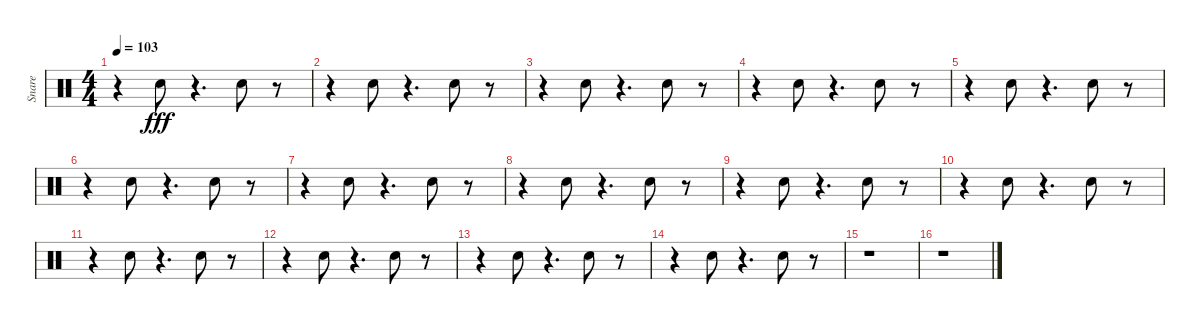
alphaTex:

\track ("Snare" "Snare") {instrument percussion}
\staff {score}
\articulation defaults
\ts (4 4)
\tempo 103
\clef neutral
\ks c
r.4{dy fff} "Electric Snare (hit)".8 r.4{d} "Electric Snare (hit)".8 r.8 |
r.4 "Electric Snare (hit)".8 r.4{d} "Electric Snare (hit)".8 r.8 |
r.4 "Electric Snare (hit)".8 r.4{d} "Electric Snare (hit)".8 r.8 |
r.4 "Electric Snare (hit)".8 r.4{d} "Electric Snare (hit)".8 r.8 |
r.4 "Electric Snare (hit)".8 r.4{d} "Electric Snare (hit)".8 r.8 |
r.4 "Electric Snare (hit)".8 r.4{d} "Electric Snare (hit)".8 r.8 |
r.4 "Electric Snare (hit)".8 r.4{d} "Electric Snare (hit)".8 r.8 |
r.4 "Electric Snare (hit)".8 r.4{d} "Electric Snare (hit)".8 r.8 |
r.4 "Electric Snare (hit)".8 r.4{d} "Electric Snare (hit)".8 r.8 |
r.4 "Electric Snare (hit)".8 r.4{d} "Electric Snare (hit)".8 r.8 |
r.4 "Electric Snare (hit)".8 r.4{d} "Electric Snare (hit)".8 r.8 |
r.4 "Electric Snare (hit)".8 r.4{d} "Electric Snare (hit)".8 r.8 |
r.4 "Electric Snare (hit)".8 r.4{d} "Electric Snare (hit)".8 r.8 |
r.4 "Electric Snare (hit)".8 r.4{d} "Electric Snare (hit)".8 r.8 |
r.1 |
r.1
